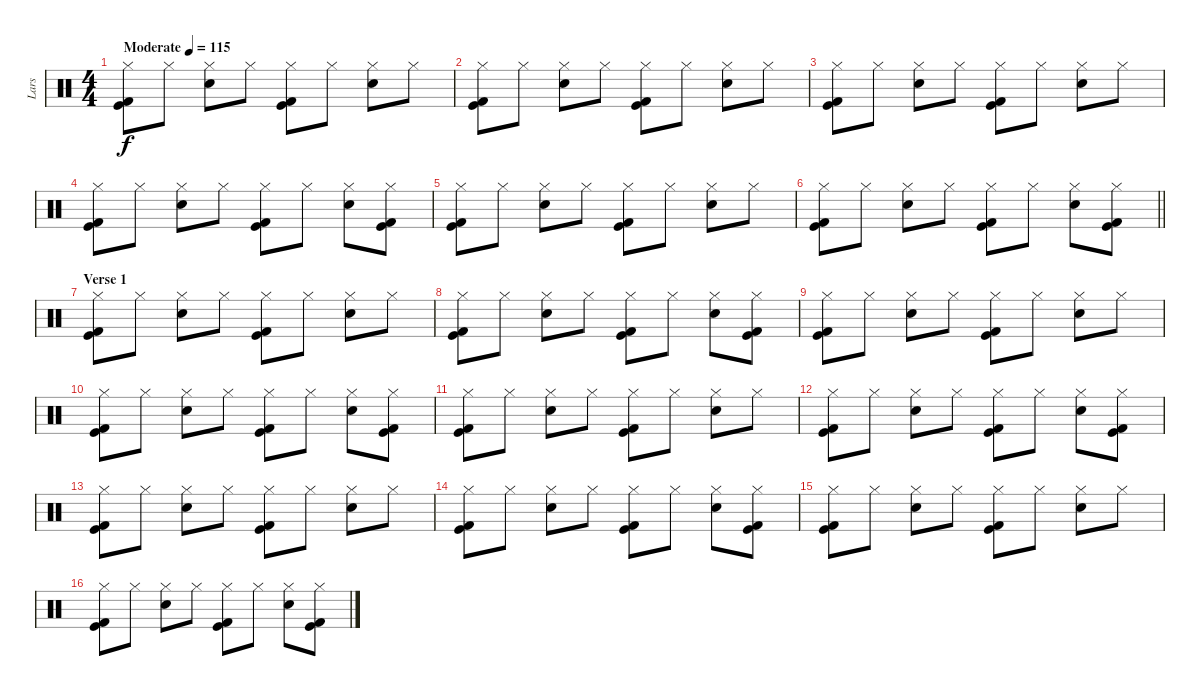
\track ("Lars" "Lars") {instrument percussion}
\staff {score}
\articulation defaults
\ts (4 4)
\tempo (115 "Moderate")
\clef neutral
\ks c
("Hi-Hat (closed)" "Kick (hit)" "Kick (hit) 2").8{dy f} "Hi-Hat (closed)".8 ("Hi-Hat (closed)" "Electric Snare (hit)").8 "Hi-Hat (closed)".8 ("Hi-Hat (closed)" "Kick (hit)" "Kick (hit) 2").8 "Hi-Hat (closed)".8 ("Hi-Hat (closed)" "Electric Snare (hit)").8 "Hi-Hat (closed)".8 |
("Hi-Hat (closed)" "Kick (hit)" "Kick (hit) 2").8 "Hi-Hat (closed)".8 ("Hi-Hat (closed)" "Electric Snare (hit)").8 "Hi-Hat (closed)".8 ("Hi-Hat (closed)" "Kick (hit)" "Kick (hit) 2").8 "Hi-Hat (closed)".8 ("Hi-Hat (closed)" "Electric Snare (hit)").8 "Hi-Hat (closed)".8 |
("Hi-Hat (closed)" "Kick (hit)" "Kick (hit) 2").8 "Hi-Hat (closed)".8 ("Hi-Hat (closed)" "Electric Snare (hit)").8 "Hi-Hat (closed)".8 ("Hi-Hat (closed)" "Kick (hit)" "Kick (hit) 2").8 "Hi-Hat (closed)".8 ("Hi-Hat (closed)" "Electric Snare (hit)").8 "Hi-Hat (closed)".8 |
("Hi-Hat (closed)" "Kick (hit)" "Kick (hit) 2").8 "Hi-Hat (closed)".8 ("Hi-Hat (closed)" "Electric Snare (hit)").8 "Hi-Hat (closed)".8 ("Hi-Hat (closed)" "Kick (hit)" "Kick (hit) 2").8 "Hi-Hat (closed)".8 ("Hi-Hat (closed)" "Electric Snare (hit)").8 ("Hi-Hat (closed)" "Kick (hit)" "Kick (hit) 2").8 |
("Hi-Hat (closed)" "Kick (hit)" "Kick (hit) 2").8 "Hi-Hat (closed)".8 ("Hi-Hat (closed)" "Electric Snare (hit)").8 "Hi-Hat (closed)".8 ("Hi-Hat (closed)" "Kick (hit)" "Kick (hit) 2").8 "Hi-Hat (closed)".8 ("Hi-Hat (closed)" "Electric Snare (hit)").8 "Hi-Hat (closed)".8 |
\barLineRight lightlight
("Hi-Hat (closed)" "Kick (hit)" "Kick (hit) 2").8 "Hi-Hat (closed)".8 ("Hi-Hat (closed)" "Electric Snare (hit)").8 "Hi-Hat (closed)".8 ("Hi-Hat (closed)" "Kick (hit)" "Kick (hit) 2").8 "Hi-Hat (closed)".8 ("Hi-Hat (closed)" "Electric Snare (hit)").8 ("Hi-Hat (closed)" "Kick (hit)" "Kick (hit) 2").8 |
\section ("" "Verse 1")
("Hi-Hat (closed)" "Kick (hit)" "Kick (hit) 2").8 "Hi-Hat (closed)".8 ("Hi-Hat (closed)" "Electric Snare (hit)").8 "Hi-Hat (closed)".8 ("Hi-Hat (closed)" "Kick (hit)" "Kick (hit) 2").8 "Hi-Hat (closed)".8 ("Hi-Hat (closed)" "Electric Snare (hit)").8 "Hi-Hat (closed)".8 |
("Hi-Hat (closed)" "Kick (hit)" "Kick (hit) 2").8 "Hi-Hat (closed)".8 ("Hi-Hat (closed)" "Electric Snare (hit)").8 "Hi-Hat (closed)".8 ("Hi-Hat (closed)" "Kick (hit)" "Kick (hit) 2").8 "Hi-Hat (closed)".8 ("Hi-Hat (closed)" "Electric Snare (hit)").8 ("Hi-Hat (closed)" "Kick (hit)" "Kick (hit) 2").8 |
("Hi-Hat (closed)" "Kick (hit)" "Kick (hit) 2").8 "Hi-Hat (closed)".8 ("Hi-Hat (closed)" "Electric Snare (hit)").8 "Hi-Hat (closed)".8 ("Hi-Hat (closed)" "Kick (hit)" "Kick (hit) 2").8 "Hi-Hat (closed)".8 ("Hi-Hat (closed)" "Electric Snare (hit)").8 "Hi-Hat (closed)".8 |
("Hi-Hat (closed)" "Kick (hit)" "Kick (hit) 2").8 "Hi-Hat (closed)".8 ("Hi-Hat (closed)" "Electric Snare (hit)").8 "Hi-Hat (closed)".8 ("Hi-Hat (closed)" "Kick (hit)" "Kick (hit) 2").8 "Hi-Hat (closed)".8 ("Hi-Hat (closed)" "Electric Snare (hit)").8 ("Hi-Hat (closed)" "Kick (hit)" "Kick (hit) 2").8 |
("Hi-Hat (closed)" "Kick (hit)" "Kick (hit) 2").8 "Hi-Hat (closed)".8 ("Hi-Hat (closed)" "Electric Snare (hit)").8 "Hi-Hat (closed)".8 ("Hi-Hat (closed)" "Kick (hit)" "Kick (hit) 2").8 "Hi-Hat (closed)".8 ("Hi-Hat (closed)" "Electric Snare (hit)").8 "Hi-Hat (closed)".8 |
("Hi-Hat (closed)" "Kick (hit)" "Kick (hit) 2").8 "Hi-Hat (closed)".8 ("Hi-Hat (closed)" "Electric Snare (hit)").8 "Hi-Hat (closed)".8 ("Hi-Hat (closed)" "Kick (hit)" "Kick (hit) 2").8 "Hi-Hat (closed)".8 ("Hi-Hat (closed)" "Electric Snare (hit)").8 ("Hi-Hat (closed)" "Kick (hit)" "Kick (hit) 2").8 |
("Hi-Hat (closed)" "Kick (hit)" "Kick (hit) 2").8 "Hi-Hat (closed)".8 ("Hi-Hat (closed)" "Electric Snare (hit)").8 "Hi-Hat (closed)".8 ("Hi-Hat (closed)" "Kick (hit)" "Kick (hit) 2").8 "Hi-Hat (closed)".8 ("Hi-Hat (closed)" "Electric Snare (hit)").8 "Hi-Hat (closed)".8 |
("Hi-Hat (closed)" "Kick (hit)" "Kick (hit) 2").8 "Hi-Hat (closed)".8 ("Hi-Hat (closed)" "Electric Snare (hit)").8 "Hi-Hat (closed)".8 ("Hi-Hat (closed)" "Kick (hit)" "Kick (hit) 2").8 "Hi-Hat (closed)".8 ("Hi-Hat (closed)" "Electric Snare (hit)").8 ("Hi-Hat (closed)" "Kick (hit)" "Kick (hit) 2").8 |
("Hi-Hat (closed)" "Kick (hit)" "Kick (hit) 2").8 "Hi-Hat (closed)".8 ("Hi-Hat (closed)" "Electric Snare (hit)").8 "Hi-Hat (closed)".8 ("Hi-Hat (closed)" "Kick (hit)" "Kick (hit) 2").8 "Hi-Hat (closed)".8 ("Hi-Hat (closed)" "Electric Snare (hit)").8 "Hi-Hat (closed)".8 |
("Hi-Hat (closed)" "Kick (hit)" "Kick (hit) 2").8 "Hi-Hat (closed)".8 ("Hi-Hat (closed)" "Electric Snare (hit)").8 "Hi-Hat (closed)".8 ("Hi-Hat (closed)" "Kick (hit)" "Kick (hit) 2").8 "Hi-Hat (closed)".8 ("Hi-Hat (closed)" "Electric Snare (hit)").8 ("Hi-Hat (closed)" "Kick (hit)" "Kick (hit) 2").8
